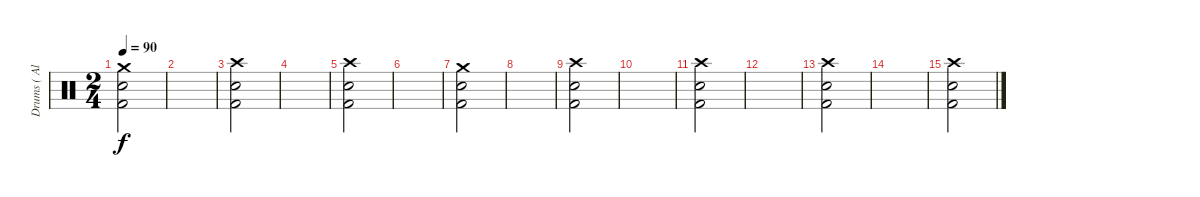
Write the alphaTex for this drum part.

\track ("Drums ( Alex Holzwarth)" "Drums ( Al") {instrument percussion}
\staff {score}
\articulation defaults
\ts (2 4)
\tempo 90
\clef neutral
\ks c
("Crash medium (hit)" "Snare (hit) 2" "Kick (hit) 2").2{dy f} |
|
("Crash high (hit)" "Snare (hit) 2" "Kick (hit) 2").2 |
|
("Crash high (hit)" "Snare (hit) 2" "Kick (hit) 2").2 |
|
("Crash medium (hit)" "Snare (hit) 2" "Kick (hit) 2").2 |
|
("Crash high (hit)" "Snare (hit) 2" "Kick (hit) 2").2 |
|
("Crash high (hit)" "Snare (hit) 2" "Kick (hit) 2").2 |
|
("Crash high (hit)" "Snare (hit) 2" "Kick (hit) 2").2 |
|
("Crash high (hit)" "Snare (hit) 2" "Kick (hit) 2").2
